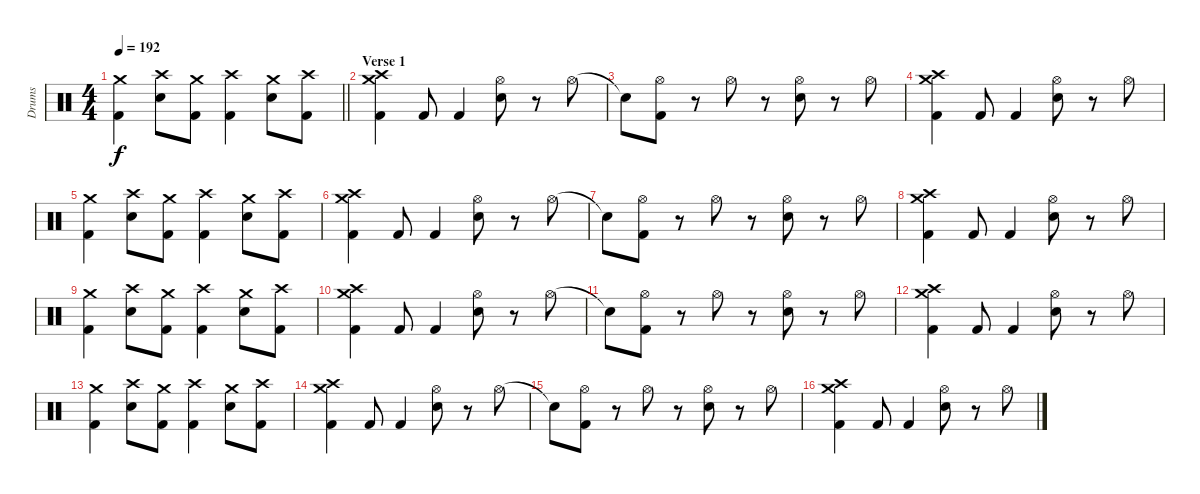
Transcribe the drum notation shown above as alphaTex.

\track ("Drums" "Drums") {instrument percussion}
\staff {score}
\articulation defaults
\ts (4 4)
\tempo 192
\clef neutral
\barLineRight lightlight
\ks c
("Crash medium (hit)" "Kick (hit) 2").4{dy f} ("Crash high (hit)" "Electric Snare (hit)").8 ("Crash medium (hit)" "Kick (hit) 2").8 ("Crash high (hit)" "Kick (hit) 2").4 ("Crash medium (hit)" "Electric Snare (hit)").8 ("Crash high (hit)" "Kick (hit) 2").8 |
\section ("" "Verse 1")
("Crash medium (hit)" "Crash high (hit)" "Kick (hit) 2").4 "Kick (hit) 2".8 "Kick (hit) 2".4 ("Hi-Hat (open)" "Electric Snare (hit)").8 r.8 "Hi-Hat (open)".8 |
"Snare (hit)"{t}.8 ("Hi-Hat (open)" "Kick (hit) 2").8 r.8 "Hi-Hat (open)".8 r.8 ("Hi-Hat (open)" "Electric Snare (hit)").8 r.8 "Hi-Hat (open)".8 |
("Crash medium (hit)" "Crash high (hit)" "Kick (hit) 2").4 "Kick (hit) 2".8 "Kick (hit) 2".4 ("Hi-Hat (open)" "Electric Snare (hit)").8 r.8 "Hi-Hat (open)".8 |
("Crash medium (hit)" "Kick (hit) 2").4 ("Crash high (hit)" "Electric Snare (hit)").8 ("Crash medium (hit)" "Kick (hit) 2").8 ("Crash high (hit)" "Kick (hit) 2").4 ("Crash medium (hit)" "Electric Snare (hit)").8 ("Crash high (hit)" "Kick (hit) 2").8 |
("Crash medium (hit)" "Crash high (hit)" "Kick (hit) 2").4 "Kick (hit) 2".8 "Kick (hit) 2".4 ("Hi-Hat (open)" "Electric Snare (hit)").8 r.8 "Hi-Hat (open)".8 |
"Snare (hit)"{t}.8 ("Hi-Hat (open)" "Kick (hit) 2").8 r.8 "Hi-Hat (open)".8 r.8 ("Hi-Hat (open)" "Electric Snare (hit)").8 r.8 "Hi-Hat (open)".8 |
("Crash medium (hit)" "Crash high (hit)" "Kick (hit) 2").4 "Kick (hit) 2".8 "Kick (hit) 2".4 ("Hi-Hat (open)" "Electric Snare (hit)").8 r.8 "Hi-Hat (open)".8 |
("Crash medium (hit)" "Kick (hit) 2").4 ("Crash high (hit)" "Electric Snare (hit)").8 ("Crash medium (hit)" "Kick (hit) 2").8 ("Crash high (hit)" "Kick (hit) 2").4 ("Crash medium (hit)" "Electric Snare (hit)").8 ("Crash high (hit)" "Kick (hit) 2").8 |
("Crash medium (hit)" "Crash high (hit)" "Kick (hit) 2").4 "Kick (hit) 2".8 "Kick (hit) 2".4 ("Hi-Hat (open)" "Electric Snare (hit)").8 r.8 "Hi-Hat (open)".8 |
"Snare (hit)"{t}.8 ("Hi-Hat (open)" "Kick (hit) 2").8 r.8 "Hi-Hat (open)".8 r.8 ("Hi-Hat (open)" "Electric Snare (hit)").8 r.8 "Hi-Hat (open)".8 |
("Crash medium (hit)" "Crash high (hit)" "Kick (hit) 2").4 "Kick (hit) 2".8 "Kick (hit) 2".4 ("Hi-Hat (open)" "Electric Snare (hit)").8 r.8 "Hi-Hat (open)".8 |
("Crash medium (hit)" "Kick (hit) 2").4 ("Crash high (hit)" "Electric Snare (hit)").8 ("Crash medium (hit)" "Kick (hit) 2").8 ("Crash high (hit)" "Kick (hit) 2").4 ("Crash medium (hit)" "Electric Snare (hit)").8 ("Crash high (hit)" "Kick (hit) 2").8 |
("Crash medium (hit)" "Crash high (hit)" "Kick (hit) 2").4 "Kick (hit) 2".8 "Kick (hit) 2".4 ("Hi-Hat (open)" "Electric Snare (hit)").8 r.8 "Hi-Hat (open)".8 |
"Snare (hit)"{t}.8 ("Hi-Hat (open)" "Kick (hit) 2").8 r.8 "Hi-Hat (open)".8 r.8 ("Hi-Hat (open)" "Electric Snare (hit)").8 r.8 "Hi-Hat (open)".8 |
("Crash medium (hit)" "Crash high (hit)" "Kick (hit) 2").4 "Kick (hit) 2".8 "Kick (hit) 2".4 ("Hi-Hat (open)" "Electric Snare (hit)").8 r.8 "Hi-Hat (open)".8
